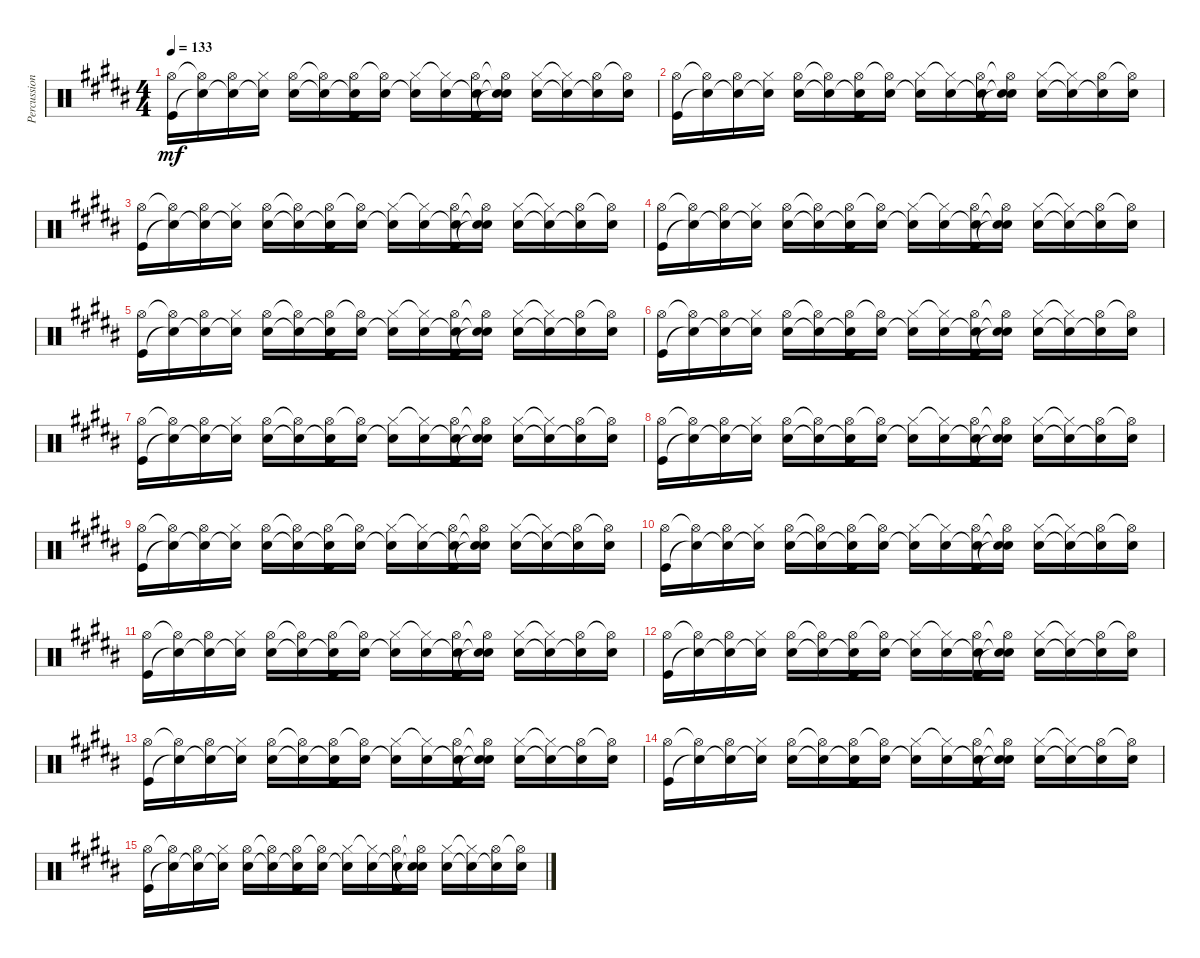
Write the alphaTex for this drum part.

\track ("Percussion" "Percussion") {instrument percussion}
\staff {score}
\articulation defaults
\ts (4 4)
\tempo 133
\clef neutral
\ks b
("Hi-Hat (open)" "Kick (hit)").16{dy mf} ("Hi-Hat (open)"{t} "Snare (hit)"{t}).16 ("Hi-Hat (open)" "Snare (hit)"{t}).16 ("Hi-Hat (closed)" "Snare (hit)"{t}).16 ("Hi-Hat (open)" "Electric Snare (hit)").16 ("Hi-Hat (open)"{t} "Snare (hit)"{t}).16 ("Hi-Hat (open)" "Snare (hit)"{t} "Kick (hit)").16 ("Hi-Hat (open)"{t} "Electric Snare (hit)").16 ("Hi-Hat (closed)" "Snare (hit)"{t}).16 ("Hi-Hat (closed)"{t} "Electric Snare (hit)").16 ("Hi-Hat (open)" "Electric Snare (hit)"{t} "Kick (hit)").16 ("Hi-Hat (open)"{t} "Snare (hit)"{t} "Snare (hit)"{t}).16 ("Hi-Hat (closed)" "Electric Snare (hit)").16 ("Hi-Hat (closed)"{t} "Snare (hit)"{t}).16 ("Hi-Hat (open)" "Snare (hit)"{t}).16 ("Hi-Hat (open)"{t} "Electric Snare (hit)").16 |
("Hi-Hat (open)" "Kick (hit)").16 ("Hi-Hat (open)"{t} "Snare (hit)"{t}).16 ("Hi-Hat (open)" "Snare (hit)"{t}).16 ("Hi-Hat (closed)" "Snare (hit)"{t}).16 ("Hi-Hat (open)" "Electric Snare (hit)").16 ("Hi-Hat (open)"{t} "Snare (hit)"{t}).16 ("Hi-Hat (open)" "Snare (hit)"{t} "Kick (hit)").16 ("Hi-Hat (open)"{t} "Electric Snare (hit)").16 ("Hi-Hat (closed)" "Snare (hit)"{t}).16 ("Hi-Hat (closed)"{t} "Electric Snare (hit)").16 ("Hi-Hat (open)" "Electric Snare (hit)"{t} "Kick (hit)").16 ("Hi-Hat (open)"{t} "Snare (hit)"{t} "Snare (hit)"{t}).16 ("Hi-Hat (closed)" "Electric Snare (hit)").16 ("Hi-Hat (closed)"{t} "Snare (hit)"{t}).16 ("Hi-Hat (open)" "Snare (hit)"{t}).16 ("Hi-Hat (open)"{t} "Electric Snare (hit)").16 |
("Hi-Hat (open)" "Kick (hit)").16 ("Hi-Hat (open)"{t} "Snare (hit)"{t}).16 ("Hi-Hat (open)" "Snare (hit)"{t}).16 ("Hi-Hat (closed)" "Snare (hit)"{t}).16 ("Hi-Hat (open)" "Electric Snare (hit)").16 ("Hi-Hat (open)"{t} "Snare (hit)"{t}).16 ("Hi-Hat (open)" "Snare (hit)"{t} "Kick (hit)").16 ("Hi-Hat (open)"{t} "Electric Snare (hit)").16 ("Hi-Hat (closed)" "Snare (hit)"{t}).16 ("Hi-Hat (closed)"{t} "Electric Snare (hit)").16 ("Hi-Hat (open)" "Electric Snare (hit)"{t} "Kick (hit)").16 ("Hi-Hat (open)"{t} "Snare (hit)"{t} "Snare (hit)"{t}).16 ("Hi-Hat (closed)" "Electric Snare (hit)").16 ("Hi-Hat (closed)"{t} "Snare (hit)"{t}).16 ("Hi-Hat (open)" "Snare (hit)"{t}).16 ("Hi-Hat (open)"{t} "Electric Snare (hit)").16 |
("Hi-Hat (open)" "Kick (hit)").16 ("Hi-Hat (open)"{t} "Snare (hit)"{t}).16 ("Hi-Hat (open)" "Snare (hit)"{t}).16 ("Hi-Hat (closed)" "Snare (hit)"{t}).16 ("Hi-Hat (open)" "Electric Snare (hit)").16 ("Hi-Hat (open)"{t} "Snare (hit)"{t}).16 ("Hi-Hat (open)" "Snare (hit)"{t} "Kick (hit)").16 ("Hi-Hat (open)"{t} "Electric Snare (hit)").16 ("Hi-Hat (closed)" "Snare (hit)"{t}).16 ("Hi-Hat (closed)"{t} "Electric Snare (hit)").16 ("Hi-Hat (open)" "Electric Snare (hit)"{t} "Kick (hit)").16 ("Hi-Hat (open)"{t} "Snare (hit)"{t} "Snare (hit)"{t}).16 ("Hi-Hat (closed)" "Electric Snare (hit)").16 ("Hi-Hat (closed)"{t} "Snare (hit)"{t}).16 ("Hi-Hat (open)" "Snare (hit)"{t}).16 ("Hi-Hat (open)"{t} "Electric Snare (hit)").16 |
("Hi-Hat (open)" "Kick (hit)").16 ("Hi-Hat (open)"{t} "Snare (hit)"{t}).16 ("Hi-Hat (open)" "Snare (hit)"{t}).16 ("Hi-Hat (closed)" "Snare (hit)"{t}).16 ("Hi-Hat (open)" "Electric Snare (hit)").16 ("Hi-Hat (open)"{t} "Snare (hit)"{t}).16 ("Hi-Hat (open)" "Snare (hit)"{t} "Kick (hit)").16 ("Hi-Hat (open)"{t} "Electric Snare (hit)").16 ("Hi-Hat (closed)" "Snare (hit)"{t}).16 ("Hi-Hat (closed)"{t} "Electric Snare (hit)").16 ("Hi-Hat (open)" "Electric Snare (hit)"{t} "Kick (hit)").16 ("Hi-Hat (open)"{t} "Snare (hit)"{t} "Snare (hit)"{t}).16 ("Hi-Hat (closed)" "Electric Snare (hit)").16 ("Hi-Hat (closed)"{t} "Snare (hit)"{t}).16 ("Hi-Hat (open)" "Snare (hit)"{t}).16 ("Hi-Hat (open)"{t} "Electric Snare (hit)").16 |
("Hi-Hat (open)" "Kick (hit)").16 ("Hi-Hat (open)"{t} "Snare (hit)"{t}).16 ("Hi-Hat (open)" "Snare (hit)"{t}).16 ("Hi-Hat (closed)" "Snare (hit)"{t}).16 ("Hi-Hat (open)" "Electric Snare (hit)").16 ("Hi-Hat (open)"{t} "Snare (hit)"{t}).16 ("Hi-Hat (open)" "Snare (hit)"{t} "Kick (hit)").16 ("Hi-Hat (open)"{t} "Electric Snare (hit)").16 ("Hi-Hat (closed)" "Snare (hit)"{t}).16 ("Hi-Hat (closed)"{t} "Electric Snare (hit)").16 ("Hi-Hat (open)" "Electric Snare (hit)"{t} "Kick (hit)").16 ("Hi-Hat (open)"{t} "Snare (hit)"{t} "Snare (hit)"{t}).16 ("Hi-Hat (closed)" "Electric Snare (hit)").16 ("Hi-Hat (closed)"{t} "Snare (hit)"{t}).16 ("Hi-Hat (open)" "Snare (hit)"{t}).16 ("Hi-Hat (open)"{t} "Electric Snare (hit)").16 |
("Hi-Hat (open)" "Kick (hit)").16 ("Hi-Hat (open)"{t} "Snare (hit)"{t}).16 ("Hi-Hat (open)" "Snare (hit)"{t}).16 ("Hi-Hat (closed)" "Snare (hit)"{t}).16 ("Hi-Hat (open)" "Electric Snare (hit)").16 ("Hi-Hat (open)"{t} "Snare (hit)"{t}).16 ("Hi-Hat (open)" "Snare (hit)"{t} "Kick (hit)").16 ("Hi-Hat (open)"{t} "Electric Snare (hit)").16 ("Hi-Hat (closed)" "Snare (hit)"{t}).16 ("Hi-Hat (closed)"{t} "Electric Snare (hit)").16 ("Hi-Hat (open)" "Electric Snare (hit)"{t} "Kick (hit)").16 ("Hi-Hat (open)"{t} "Snare (hit)"{t} "Snare (hit)"{t}).16 ("Hi-Hat (closed)" "Electric Snare (hit)").16 ("Hi-Hat (closed)"{t} "Snare (hit)"{t}).16 ("Hi-Hat (open)" "Snare (hit)"{t}).16 ("Hi-Hat (open)"{t} "Electric Snare (hit)").16 |
("Hi-Hat (open)" "Kick (hit)").16 ("Hi-Hat (open)"{t} "Snare (hit)"{t}).16 ("Hi-Hat (open)" "Snare (hit)"{t}).16 ("Hi-Hat (closed)" "Snare (hit)"{t}).16 ("Hi-Hat (open)" "Electric Snare (hit)").16 ("Hi-Hat (open)"{t} "Snare (hit)"{t}).16 ("Hi-Hat (open)" "Snare (hit)"{t} "Kick (hit)").16 ("Hi-Hat (open)"{t} "Electric Snare (hit)").16 ("Hi-Hat (closed)" "Snare (hit)"{t}).16 ("Hi-Hat (closed)"{t} "Electric Snare (hit)").16 ("Hi-Hat (open)" "Electric Snare (hit)"{t} "Kick (hit)").16 ("Hi-Hat (open)"{t} "Snare (hit)"{t} "Snare (hit)"{t}).16 ("Hi-Hat (closed)" "Electric Snare (hit)").16 ("Hi-Hat (closed)"{t} "Snare (hit)"{t}).16 ("Hi-Hat (open)" "Snare (hit)"{t}).16 ("Hi-Hat (open)"{t} "Electric Snare (hit)").16 |
("Hi-Hat (open)" "Kick (hit)").16 ("Hi-Hat (open)"{t} "Snare (hit)"{t}).16 ("Hi-Hat (open)" "Snare (hit)"{t}).16 ("Hi-Hat (closed)" "Snare (hit)"{t}).16 ("Hi-Hat (open)" "Electric Snare (hit)").16 ("Hi-Hat (open)"{t} "Snare (hit)"{t}).16 ("Hi-Hat (open)" "Snare (hit)"{t} "Kick (hit)").16 ("Hi-Hat (open)"{t} "Electric Snare (hit)").16 ("Hi-Hat (closed)" "Snare (hit)"{t}).16 ("Hi-Hat (closed)"{t} "Electric Snare (hit)").16 ("Hi-Hat (open)" "Electric Snare (hit)"{t} "Kick (hit)").16 ("Hi-Hat (open)"{t} "Snare (hit)"{t} "Snare (hit)"{t}).16 ("Hi-Hat (closed)" "Electric Snare (hit)").16 ("Hi-Hat (closed)"{t} "Snare (hit)"{t}).16 ("Hi-Hat (open)" "Snare (hit)"{t}).16 ("Hi-Hat (open)"{t} "Electric Snare (hit)").16 |
("Hi-Hat (open)" "Kick (hit)").16 ("Hi-Hat (open)"{t} "Snare (hit)"{t}).16 ("Hi-Hat (open)" "Snare (hit)"{t}).16 ("Hi-Hat (closed)" "Snare (hit)"{t}).16 ("Hi-Hat (open)" "Electric Snare (hit)").16 ("Hi-Hat (open)"{t} "Snare (hit)"{t}).16 ("Hi-Hat (open)" "Snare (hit)"{t} "Kick (hit)").16 ("Hi-Hat (open)"{t} "Electric Snare (hit)").16 ("Hi-Hat (closed)" "Snare (hit)"{t}).16 ("Hi-Hat (closed)"{t} "Electric Snare (hit)").16 ("Hi-Hat (open)" "Electric Snare (hit)"{t} "Kick (hit)").16 ("Hi-Hat (open)"{t} "Snare (hit)"{t} "Snare (hit)"{t}).16 ("Hi-Hat (closed)" "Electric Snare (hit)").16 ("Hi-Hat (closed)"{t} "Snare (hit)"{t}).16 ("Hi-Hat (open)" "Snare (hit)"{t}).16 ("Hi-Hat (open)"{t} "Electric Snare (hit)").16 |
("Hi-Hat (open)" "Kick (hit)").16 ("Hi-Hat (open)"{t} "Snare (hit)"{t}).16 ("Hi-Hat (open)" "Snare (hit)"{t}).16 ("Hi-Hat (closed)" "Snare (hit)"{t}).16 ("Hi-Hat (open)" "Electric Snare (hit)").16 ("Hi-Hat (open)"{t} "Snare (hit)"{t}).16 ("Hi-Hat (open)" "Snare (hit)"{t} "Kick (hit)").16 ("Hi-Hat (open)"{t} "Electric Snare (hit)").16 ("Hi-Hat (closed)" "Snare (hit)"{t}).16 ("Hi-Hat (closed)"{t} "Electric Snare (hit)").16 ("Hi-Hat (open)" "Electric Snare (hit)"{t} "Kick (hit)").16 ("Hi-Hat (open)"{t} "Snare (hit)"{t} "Snare (hit)"{t}).16 ("Hi-Hat (closed)" "Electric Snare (hit)").16 ("Hi-Hat (closed)"{t} "Snare (hit)"{t}).16 ("Hi-Hat (open)" "Snare (hit)"{t}).16 ("Hi-Hat (open)"{t} "Electric Snare (hit)").16 |
("Hi-Hat (open)" "Kick (hit)").16 ("Hi-Hat (open)"{t} "Snare (hit)"{t}).16 ("Hi-Hat (open)" "Snare (hit)"{t}).16 ("Hi-Hat (closed)" "Snare (hit)"{t}).16 ("Hi-Hat (open)" "Electric Snare (hit)").16 ("Hi-Hat (open)"{t} "Snare (hit)"{t}).16 ("Hi-Hat (open)" "Snare (hit)"{t} "Kick (hit)").16 ("Hi-Hat (open)"{t} "Electric Snare (hit)").16 ("Hi-Hat (closed)" "Snare (hit)"{t}).16 ("Hi-Hat (closed)"{t} "Electric Snare (hit)").16 ("Hi-Hat (open)" "Electric Snare (hit)"{t} "Kick (hit)").16 ("Hi-Hat (open)"{t} "Snare (hit)"{t} "Snare (hit)"{t}).16 ("Hi-Hat (closed)" "Electric Snare (hit)").16 ("Hi-Hat (closed)"{t} "Snare (hit)"{t}).16 ("Hi-Hat (open)" "Snare (hit)"{t}).16 ("Hi-Hat (open)"{t} "Electric Snare (hit)").16 |
("Hi-Hat (open)" "Kick (hit)").16 ("Hi-Hat (open)"{t} "Snare (hit)"{t}).16 ("Hi-Hat (open)" "Snare (hit)"{t}).16 ("Hi-Hat (closed)" "Snare (hit)"{t}).16 ("Hi-Hat (open)" "Electric Snare (hit)").16 ("Hi-Hat (open)"{t} "Snare (hit)"{t}).16 ("Hi-Hat (open)" "Snare (hit)"{t} "Kick (hit)").16 ("Hi-Hat (open)"{t} "Electric Snare (hit)").16 ("Hi-Hat (closed)" "Snare (hit)"{t}).16 ("Hi-Hat (closed)"{t} "Electric Snare (hit)").16 ("Hi-Hat (open)" "Electric Snare (hit)"{t} "Kick (hit)").16 ("Hi-Hat (open)"{t} "Snare (hit)"{t} "Snare (hit)"{t}).16 ("Hi-Hat (closed)" "Electric Snare (hit)").16 ("Hi-Hat (closed)"{t} "Snare (hit)"{t}).16 ("Hi-Hat (open)" "Snare (hit)"{t}).16 ("Hi-Hat (open)"{t} "Electric Snare (hit)").16 |
("Hi-Hat (open)" "Kick (hit)").16 ("Hi-Hat (open)"{t} "Snare (hit)"{t}).16 ("Hi-Hat (open)" "Snare (hit)"{t}).16 ("Hi-Hat (closed)" "Snare (hit)"{t}).16 ("Hi-Hat (open)" "Electric Snare (hit)").16 ("Hi-Hat (open)"{t} "Snare (hit)"{t}).16 ("Hi-Hat (open)" "Snare (hit)"{t} "Kick (hit)").16 ("Hi-Hat (open)"{t} "Electric Snare (hit)").16 ("Hi-Hat (closed)" "Snare (hit)"{t}).16 ("Hi-Hat (closed)"{t} "Electric Snare (hit)").16 ("Hi-Hat (open)" "Electric Snare (hit)"{t} "Kick (hit)").16 ("Hi-Hat (open)"{t} "Snare (hit)"{t} "Snare (hit)"{t}).16 ("Hi-Hat (closed)" "Electric Snare (hit)").16 ("Hi-Hat (closed)"{t} "Snare (hit)"{t}).16 ("Hi-Hat (open)" "Snare (hit)"{t}).16 ("Hi-Hat (open)"{t} "Electric Snare (hit)").16 |
("Hi-Hat (open)" "Kick (hit)").16 ("Hi-Hat (open)"{t} "Snare (hit)"{t}).16 ("Hi-Hat (open)" "Snare (hit)"{t}).16 ("Hi-Hat (closed)" "Snare (hit)"{t}).16 ("Hi-Hat (open)" "Electric Snare (hit)").16 ("Hi-Hat (open)"{t} "Snare (hit)"{t}).16 ("Hi-Hat (open)" "Snare (hit)"{t} "Kick (hit)").16 ("Hi-Hat (open)"{t} "Electric Snare (hit)").16 ("Hi-Hat (closed)" "Snare (hit)"{t}).16 ("Hi-Hat (closed)"{t} "Electric Snare (hit)").16 ("Hi-Hat (open)" "Electric Snare (hit)"{t} "Kick (hit)").16 ("Hi-Hat (open)"{t} "Snare (hit)"{t} "Snare (hit)"{t}).16 ("Hi-Hat (closed)" "Electric Snare (hit)").16 ("Hi-Hat (closed)"{t} "Snare (hit)"{t}).16 ("Hi-Hat (open)" "Snare (hit)"{t}).16 ("Hi-Hat (open)"{t} "Electric Snare (hit)").16
